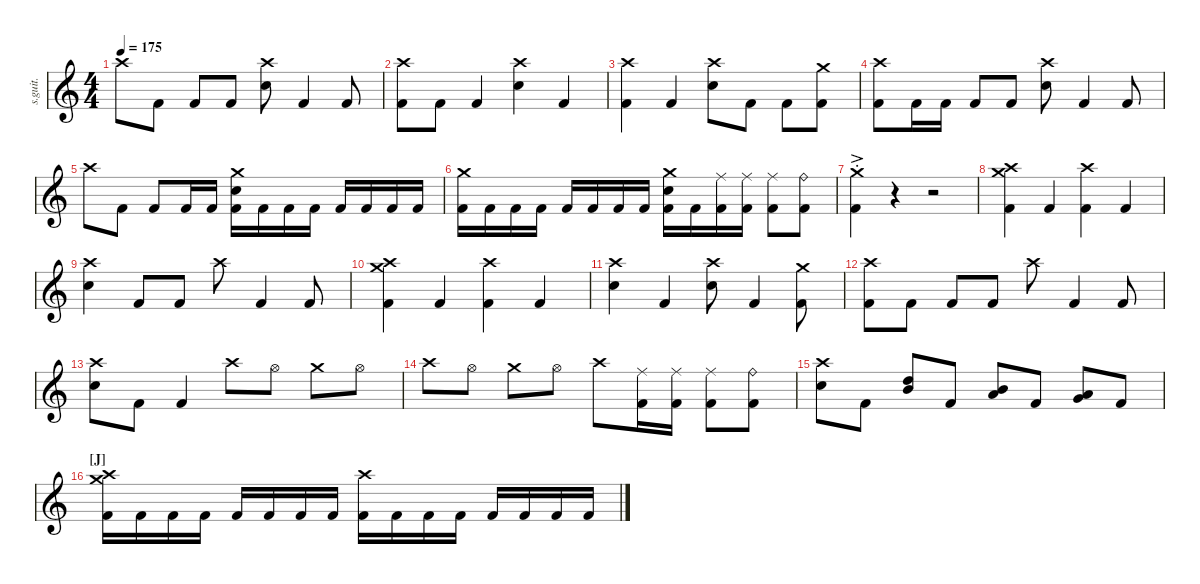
\defaultSystemsLayout 4
\hideDynamics
\bracketExtendMode nobrackets
\track ("" "s.guit.") {instrument percussion}
\staff {score}
\articulation defaults
\ts (4 4)
\tempo 175
\clef g2
\ks c "Crash high (hit)".8{dy ff} "Kick (hit) 2".8 "Kick (hit) 2".8 "Kick (hit) 2".8
("Crash high (hit)" "Snare (hit) 2").8 "Kick (hit) 2".4 "Kick (hit) 2".8 |
("Crash high (hit)" "Kick (hit) 2").8 "Kick (hit) 2".8 "Kick (hit) 2".4 ("Crash high (hit)" "Snare (hit) 2").4 "Kick (hit) 2".4 |
("Crash high (hit)" "Kick (hit) 2").4 "Kick (hit) 2".4 ("Crash high (hit)" "Snare (hit) 2").8 "Kick (hit) 2".8 "Kick (hit) 2".8 ("Crash medium (hit)" "Kick (hit) 2").8 |
("Crash high (hit)" "Kick (hit) 2").8 "Kick (hit) 2".16 "Kick (hit) 2".16 "Kick (hit) 2".8 "Kick (hit) 2".8 ("Crash high (hit)" "Snare (hit) 2").8 "Kick (hit) 2".4 "Kick (hit) 2".8 |
"Crash high (hit)".8 "Kick (hit) 2".8 "Kick (hit) 2".8 "Kick (hit) 2".16 "Kick (hit) 2".16 ("Crash medium (hit)" "Snare (hit) 2" "Kick (hit) 2").16 "Kick (hit) 2".16 "Kick (hit) 2".16 "Kick (hit) 2".16 "Kick (hit) 2".16 "Kick (hit) 2".16 "Kick (hit) 2".16 "Kick (hit) 2".16 |
("Crash medium (hit)" "Kick (hit) 2").16 "Kick (hit) 2".16 "Kick (hit) 2".16 "Kick (hit) 2".16 "Kick (hit) 2".16 "Kick (hit) 2".16 "Kick (hit) 2".16 "Kick (hit) 2".16 ("Crash medium (hit)" "Snare (hit) 2" "Kick (hit) 2").16 "Kick (hit) 2".16 ("Ride (middle)" "Kick (hit) 2").16 ("Ride (middle)" "Kick (hit) 2").16 ("Ride (middle)" "Kick (hit) 2").8 ("Ride (bell)" "Kick (hit) 2").8 |
("Crash medium (hit)"{ac st} "Kick (hit) 2").4 r.4 r.2 |
("Crash medium (hit)" "Crash high (hit)" "Kick (hit) 2").4 "Kick (hit) 2".4 ("Crash high (hit)" "Kick (hit) 2").4 "Kick (hit) 2".4 |
("Crash high (hit)" "Snare (hit) 2").4 "Kick (hit) 2".8 "Kick (hit) 2".8 "Crash high (hit)".8 "Kick (hit) 2".4 "Kick (hit) 2".8 |
("Crash high (hit)" "Crash medium (hit)" "Kick (hit) 2").4 "Kick (hit) 2".4 ("Crash high (hit)" "Kick (hit) 2").4 "Kick (hit) 2".4 |
("Crash high (hit)" "Snare (hit) 2").4 "Kick (hit) 2".4 ("Crash high (hit)" "Snare (hit) 2").8 "Kick (hit) 2".4 ("Crash medium (hit)" "Kick (hit) 2").8 |
("Crash high (hit)" "Kick (hit) 2").8 "Kick (hit) 2".8 "Kick (hit) 2".8 "Kick (hit) 2".8 "Crash high (hit)".8 "Kick (hit) 2".4 "Kick (hit) 2".8 |
("Crash high (hit)" "Snare (hit) 2").8 "Kick (hit) 2".8 "Kick (hit) 2".4 "Crash high (hit)".8 "Hi-Hat (open)".8 "Crash medium (hit)".8 "Hi-Hat (open)".8 |
"Crash high (hit)".8 "Hi-Hat (open)".8 "Crash medium (hit)".8 "Hi-Hat (open)".8 "Crash high (hit)".8 ("Ride (middle)" "Kick (hit) 2").16 ("Ride (middle)" "Kick (hit) 2").16 ("Ride (middle)" "Kick (hit) 2").8 ("Ride (bell)" "Kick (hit) 2").8 |
("Crash high (hit)" "Snare (hit) 2").8 "Kick (hit) 2".8 ("High Tom (hit)" "Mid Tom (hit)").8 "Kick (hit) 2".8 ("Mid Tom (hit)" "Low Tom (hit)").8 "Kick (hit) 2".8 ("Low Tom (hit)" "Very Low Tom (hit)").8 "Kick (hit) 2".8 |
\section ("J" "")
("Crash medium (hit)" "Crash high (hit)" "Kick (hit) 2").16 "Kick (hit) 2".16 "Kick (hit) 2".16 "Kick (hit) 2".16 "Kick (hit) 2".16 "Kick (hit) 2".16 "Kick (hit) 2".16 "Kick (hit) 2".16 ("Crash high (hit)" "Kick (hit) 2").16 "Kick (hit) 2".16 "Kick (hit) 2".16 "Kick (hit) 2".16 "Kick (hit) 2".16 "Kick (hit) 2".16 "Kick (hit) 2".16 "Kick (hit) 2".16
